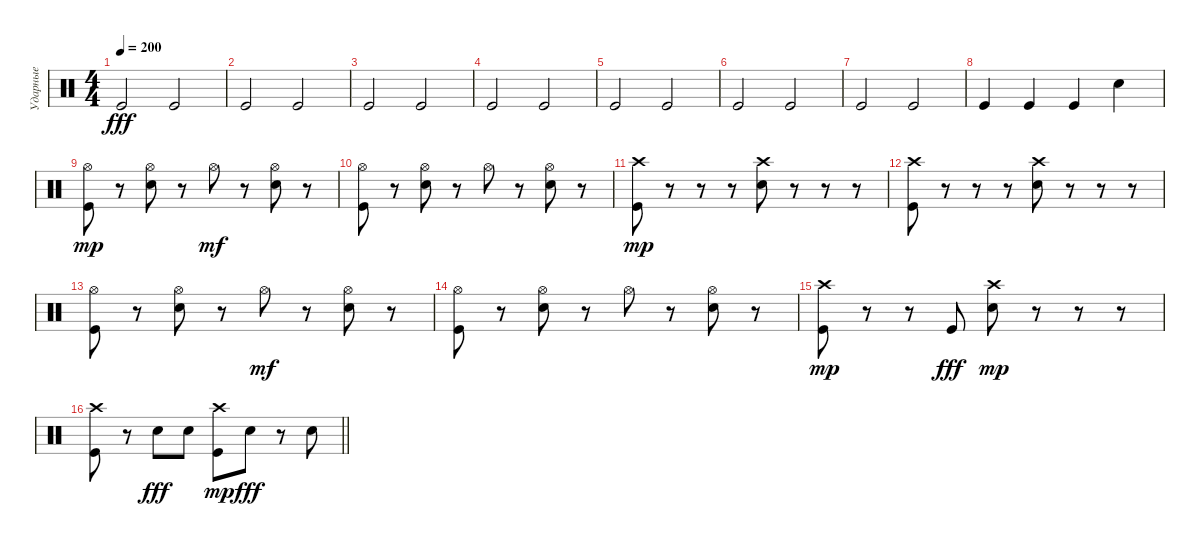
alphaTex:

\track ("Ударные" "Ударные") {instrument percussion}
\staff {score}
\articulation defaults
\ts (4 4)
\tempo 200
\clef neutral
\ks c "Kick (hit)".2{dy fff} "Kick (hit)".2
|
"Kick (hit)".2 "Kick (hit)".2 |
"Kick (hit)".2 "Kick (hit)".2 |
"Kick (hit)".2 "Kick (hit)".2 |
"Kick (hit)".2 "Kick (hit)".2 |
"Kick (hit)".2 "Kick (hit)".2 |
"Kick (hit)".2 "Kick (hit)".2 |
"Kick (hit)".4 "Kick (hit)".4 "Kick (hit)".4 "Snare (hit) 2".4 |
("Kick (hit)" "Hi-Hat (open)").8{dy mp} r.8 ("Electric Snare (hit)" "Hi-Hat (open)").8 r.8 "Hi-Hat (open)".8{dy mf} r.8 ("Electric Snare (hit)" "Hi-Hat (open)").8 r.8 |
("Kick (hit)" "Hi-Hat (open)").8 r.8 ("Electric Snare (hit)" "Hi-Hat (open)").8 r.8 "Hi-Hat (open)".8 r.8 ("Electric Snare (hit)" "Hi-Hat (open)").8 r.8 |
("Kick (hit)" "Crash high (hit)").8{dy mp} r.8 r.8 r.8 ("Electric Snare (hit)" "Crash high (hit)").8 r.8 r.8 r.8 |
("Kick (hit)" "Crash high (hit)").8 r.8 r.8 r.8 ("Electric Snare (hit)" "Crash high (hit)").8 r.8 r.8 r.8 |
("Kick (hit)" "Hi-Hat (open)").8 r.8 ("Electric Snare (hit)" "Hi-Hat (open)").8 r.8 "Hi-Hat (open)".8{dy mf} r.8 ("Electric Snare (hit)" "Hi-Hat (open)").8 r.8 |
("Kick (hit)" "Hi-Hat (open)").8 r.8 ("Electric Snare (hit)" "Hi-Hat (open)").8 r.8 "Hi-Hat (open)".8 r.8 ("Electric Snare (hit)" "Hi-Hat (open)").8 r.8 |
("Kick (hit)" "Crash high (hit)").8{dy mp} r.8 r.8 "Kick (hit)".8{dy fff} ("Electric Snare (hit)" "Crash high (hit)").8{dy mp} r.8 r.8 r.8 |
\barLineRight lightlight
("Kick (hit)" "Crash high (hit)").8 r.8 "Electric Snare (hit)".8{dy fff} "Electric Snare (hit)".8 ("Kick (hit)" "Crash high (hit)").8{dy mp} "Electric Snare (hit)".8{dy fff} r.8 "Electric Snare (hit)".8
